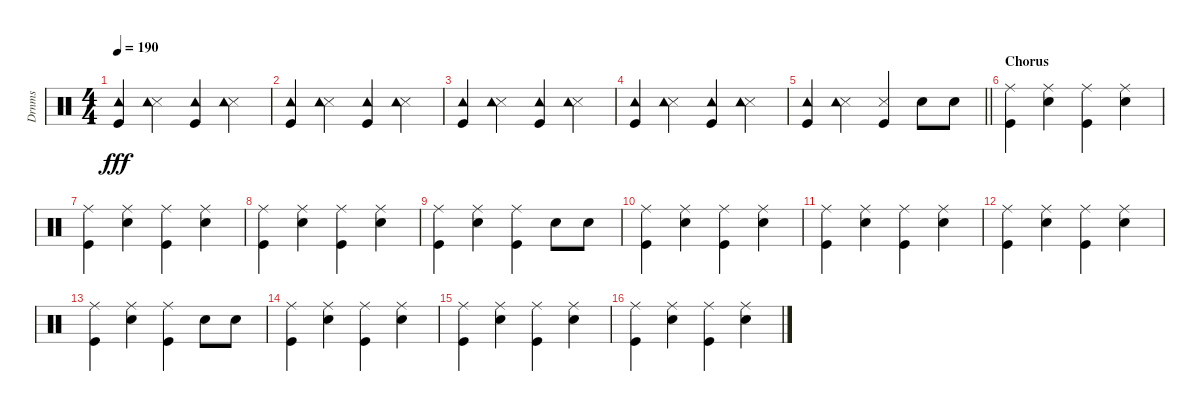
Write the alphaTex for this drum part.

\track ("Drnms" "Drnms") {instrument percussion}
\staff {score}
\articulation defaults
\ts (4 4)
\tempo 190
\clef neutral
\ks c
("Kick (hit)" "Tambourine (hit)").4{dy fff} ("Snare (side stick) 3" "Tambourine (hit)").4 ("Kick (hit)" "Tambourine (hit)").4 ("Snare (side stick) 3" "Tambourine (hit)").4 |
("Kick (hit)" "Tambourine (hit)").4 ("Snare (side stick) 3" "Tambourine (hit)").4 ("Kick (hit)" "Tambourine (hit)").4 ("Snare (side stick) 3" "Tambourine (hit)").4 |
("Kick (hit)" "Tambourine (hit)").4 ("Snare (side stick) 3" "Tambourine (hit)").4 ("Kick (hit)" "Tambourine (hit)").4 ("Snare (side stick) 3" "Tambourine (hit)").4 |
("Kick (hit)" "Tambourine (hit)").4 ("Snare (side stick) 3" "Tambourine (hit)").4 ("Kick (hit)" "Tambourine (hit)").4 ("Snare (side stick) 3" "Tambourine (hit)").4 |
\barLineRight lightlight
("Kick (hit)" "Tambourine (hit)").4 ("Snare (side stick) 3" "Tambourine (hit)").4 ("Kick (hit)" "Snare (side stick) 3").4 "Snare (hit) 2".8 "Snare (hit) 2".8 |
\section ("" "Chorus")
("Kick (hit)" "Ride (middle)").4 ("Snare (hit) 2" "Ride (middle)").4 ("Kick (hit)" "Ride (middle)").4 ("Snare (hit) 2" "Ride (middle)").4 |
("Kick (hit)" "Ride (middle)").4 ("Snare (hit) 2" "Ride (middle)").4 ("Kick (hit)" "Ride (middle)").4 ("Snare (hit) 2" "Ride (middle)").4 |
("Kick (hit)" "Ride (middle)").4 ("Snare (hit) 2" "Ride (middle)").4 ("Kick (hit)" "Ride (middle)").4 ("Snare (hit) 2" "Ride (middle)").4 |
("Kick (hit)" "Ride (middle)").4 ("Snare (hit) 2" "Ride (middle)").4 ("Kick (hit)" "Ride (middle)").4 "Snare (hit) 2".8 "Snare (hit) 2".8 |
("Kick (hit)" "Ride (middle)").4 ("Snare (hit) 2" "Ride (middle)").4 ("Kick (hit)" "Ride (middle)").4 ("Snare (hit) 2" "Ride (middle)").4 |
("Kick (hit)" "Ride (middle)").4 ("Snare (hit) 2" "Ride (middle)").4 ("Kick (hit)" "Ride (middle)").4 ("Snare (hit) 2" "Ride (middle)").4 |
("Kick (hit)" "Ride (middle)").4 ("Snare (hit) 2" "Ride (middle)").4 ("Kick (hit)" "Ride (middle)").4 ("Snare (hit) 2" "Ride (middle)").4 |
("Kick (hit)" "Ride (middle)").4 ("Snare (hit) 2" "Ride (middle)").4 ("Kick (hit)" "Ride (middle)").4 "Snare (hit) 2".8 "Snare (hit) 2".8 |
("Kick (hit)" "Ride (middle)").4 ("Snare (hit) 2" "Ride (middle)").4 ("Kick (hit)" "Ride (middle)").4 ("Snare (hit) 2" "Ride (middle)").4 |
("Kick (hit)" "Ride (middle)").4 ("Snare (hit) 2" "Ride (middle)").4 ("Kick (hit)" "Ride (middle)").4 ("Snare (hit) 2" "Ride (middle)").4 |
("Kick (hit)" "Ride (middle)").4 ("Snare (hit) 2" "Ride (middle)").4 ("Kick (hit)" "Ride (middle)").4 ("Snare (hit) 2" "Ride (middle)").4
